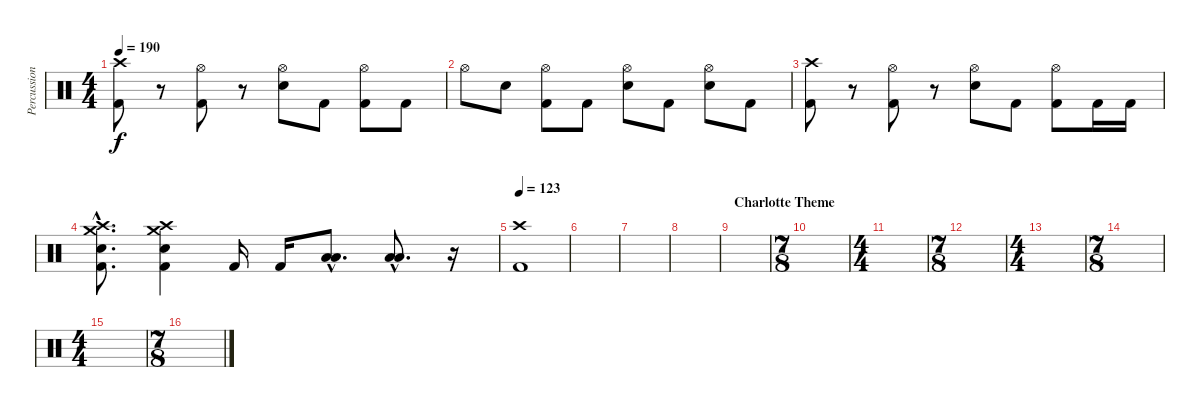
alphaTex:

\track ("Percussion" "Percussion") {instrument percussion}
\staff {score}
\articulation defaults
\ts (4 4)
\tempo 190
\clef neutral
\ks c
("Crash high (hit)" "Kick (hit) 2").8{dy f} r.8 ("Hi-Hat (open)" "Kick (hit) 2").8 r.8 ("Hi-Hat (open)" "Electric Snare (hit)").8 "Kick (hit) 2".8 ("Hi-Hat (open)" "Kick (hit) 2").8 "Kick (hit) 2".8 |
"Hi-Hat (open)".8 "Electric Snare (hit)".8 ("Hi-Hat (open)" "Kick (hit) 2").8 "Kick (hit) 2".8 ("Hi-Hat (open)" "Electric Snare (hit)").8 "Kick (hit) 2".8 ("Hi-Hat (open)" "Electric Snare (hit)").8 "Kick (hit) 2".8 |
("Crash high (hit)" "Kick (hit) 2").8 r.8 ("Hi-Hat (open)" "Kick (hit) 2").8 r.8 ("Hi-Hat (open)" "Electric Snare (hit)").8 "Kick (hit) 2".8 ("Hi-Hat (open)" "Kick (hit) 2").8 "Kick (hit) 2".16 "Kick (hit) 2".16 |
("Crash medium (hit)"{hac} "Crash high (hit)"{hac} "Electric Snare (hit)"{hac} "Kick (hit) 2"{hac}).8{d} ("Crash medium (hit)" "Crash high (hit)" "Electric Snare (hit)" "Kick (hit) 2").4 "Kick (hit) 2".16 "Kick (hit) 2".16 ("Low Tom (hit)"{hac} "Low Floor Tom (hit)"{hac}).8{d} ("Low Tom (hit)"{hac} "Low Floor Tom (hit)"{hac}).8{d} r.16 |
\tempo 123
("Crash high (hit)" "Kick (hit) 2").1 |
|
|
|
\section ("" "Charlotte Theme")
|
\ts (7 8)
|
\ts (4 4)
|
\ts (7 8)
|
\ts (4 4)
|
\ts (7 8)
|
\ts (4 4)
|
\ts (7 8)
